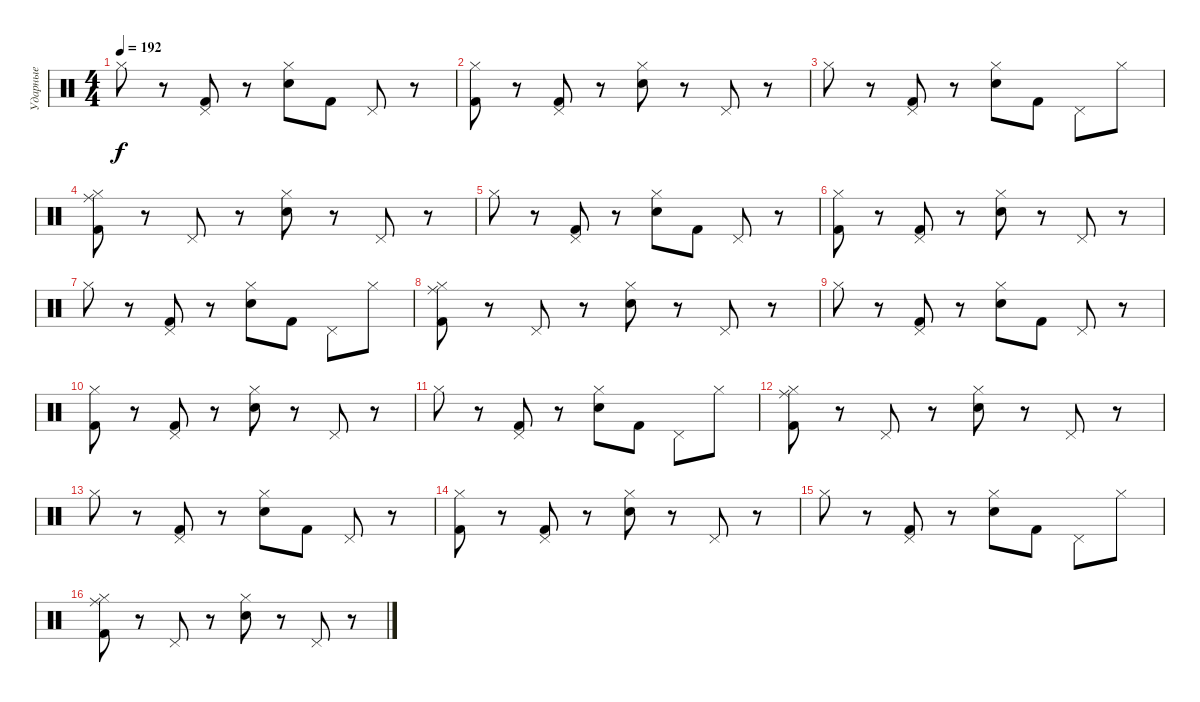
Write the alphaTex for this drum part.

\track ("Ударные" "Ударные") {instrument percussion}
\staff {score}
\articulation defaults
\ts (4 4)
\tempo 192
\clef neutral
\ks c "Hi-Hat (closed)".8{dy f}
r.8 ("Kick (hit) 2" "Pedal Hi-Hat (hit)").8 r.8 ("Snare (hit) 2" "Hi-Hat (closed)").8 "Kick (hit) 2".8 "Pedal Hi-Hat (hit)".8 r.8 |
("Kick (hit) 2" "Hi-Hat (closed)").8 r.8 ("Kick (hit) 2" "Pedal Hi-Hat (hit)").8 r.8 ("Snare (hit) 2" "Hi-Hat (closed)").8 r.8 "Pedal Hi-Hat (hit)".8 r.8 |
"Hi-Hat (closed)".8 r.8 ("Kick (hit) 2" "Pedal Hi-Hat (hit)").8 r.8 ("Snare (hit) 2" "Hi-Hat (closed)").8 "Kick (hit) 2".8 "Pedal Hi-Hat (hit)".8 "Hi-Hat (closed)".8 |
("Kick (hit) 2" "Hi-Hat (closed)" "Ride (middle)").8 r.8 "Pedal Hi-Hat (hit)".8 r.8 ("Snare (hit) 2" "Hi-Hat (closed)").8 r.8 "Pedal Hi-Hat (hit)".8 r.8 |
"Hi-Hat (closed)".8 r.8 ("Kick (hit) 2" "Pedal Hi-Hat (hit)").8 r.8 ("Snare (hit) 2" "Hi-Hat (closed)").8 "Kick (hit) 2".8 "Pedal Hi-Hat (hit)".8 r.8 |
("Kick (hit) 2" "Hi-Hat (closed)").8 r.8 ("Kick (hit) 2" "Pedal Hi-Hat (hit)").8 r.8 ("Snare (hit) 2" "Hi-Hat (closed)").8 r.8 "Pedal Hi-Hat (hit)".8 r.8 |
"Hi-Hat (closed)".8 r.8 ("Kick (hit) 2" "Pedal Hi-Hat (hit)").8 r.8 ("Snare (hit) 2" "Hi-Hat (closed)").8 "Kick (hit) 2".8 "Pedal Hi-Hat (hit)".8 "Hi-Hat (closed)".8 |
("Kick (hit) 2" "Hi-Hat (closed)" "Ride (middle)").8 r.8 "Pedal Hi-Hat (hit)".8 r.8 ("Snare (hit) 2" "Hi-Hat (closed)").8 r.8 "Pedal Hi-Hat (hit)".8 r.8 |
"Hi-Hat (closed)".8 r.8 ("Kick (hit) 2" "Pedal Hi-Hat (hit)").8 r.8 ("Snare (hit) 2" "Hi-Hat (closed)").8 "Kick (hit) 2".8 "Pedal Hi-Hat (hit)".8 r.8 |
("Kick (hit) 2" "Hi-Hat (closed)").8 r.8 ("Kick (hit) 2" "Pedal Hi-Hat (hit)").8 r.8 ("Snare (hit) 2" "Hi-Hat (closed)").8 r.8 "Pedal Hi-Hat (hit)".8 r.8 |
"Hi-Hat (closed)".8 r.8 ("Kick (hit) 2" "Pedal Hi-Hat (hit)").8 r.8 ("Snare (hit) 2" "Hi-Hat (closed)").8 "Kick (hit) 2".8 "Pedal Hi-Hat (hit)".8 "Hi-Hat (closed)".8 |
("Kick (hit) 2" "Hi-Hat (closed)" "Ride (middle)").8 r.8 "Pedal Hi-Hat (hit)".8 r.8 ("Snare (hit) 2" "Hi-Hat (closed)").8 r.8 "Pedal Hi-Hat (hit)".8 r.8 |
"Hi-Hat (closed)".8 r.8 ("Kick (hit) 2" "Pedal Hi-Hat (hit)").8 r.8 ("Snare (hit) 2" "Hi-Hat (closed)").8 "Kick (hit) 2".8 "Pedal Hi-Hat (hit)".8 r.8 |
("Kick (hit) 2" "Hi-Hat (closed)").8 r.8 ("Kick (hit) 2" "Pedal Hi-Hat (hit)").8 r.8 ("Snare (hit) 2" "Hi-Hat (closed)").8 r.8 "Pedal Hi-Hat (hit)".8 r.8 |
"Hi-Hat (closed)".8 r.8 ("Kick (hit) 2" "Pedal Hi-Hat (hit)").8 r.8 ("Snare (hit) 2" "Hi-Hat (closed)").8 "Kick (hit) 2".8 "Pedal Hi-Hat (hit)".8 "Hi-Hat (closed)".8 |
("Kick (hit) 2" "Hi-Hat (closed)" "Ride (middle)").8 r.8 "Pedal Hi-Hat (hit)".8 r.8 ("Snare (hit) 2" "Hi-Hat (closed)").8 r.8 "Pedal Hi-Hat (hit)".8 r.8
